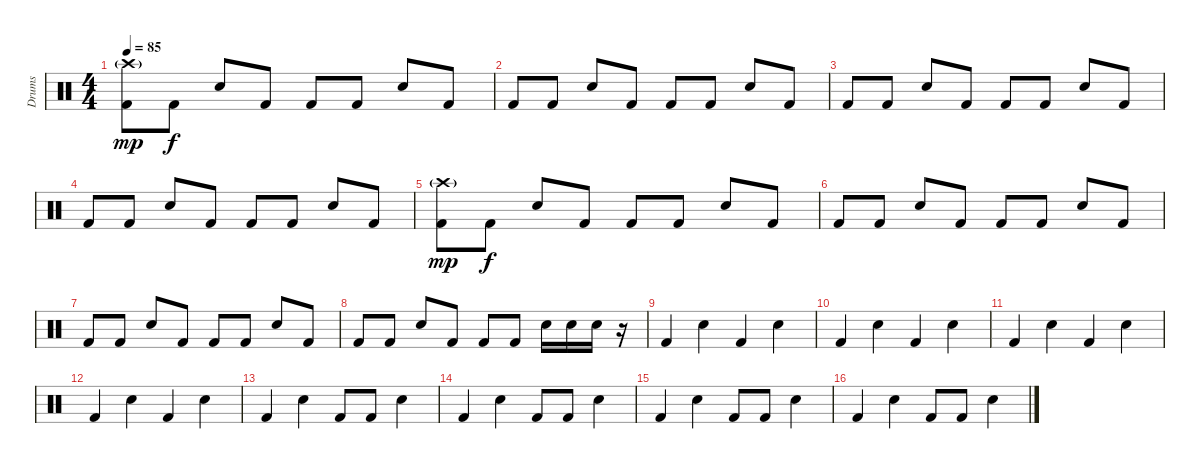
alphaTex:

\track ("Drums" "Drums") {instrument percussion}
\staff {score}
\articulation defaults
\ts (4 4)
\tempo 85
\clef neutral
\ks c
("Kick (hit) 2" "Crash high (hit)"{g}).8{dy mp} "Kick (hit) 2".8{dy f} "Electric Snare (hit)".8 "Kick (hit) 2".8 "Kick (hit) 2".8 "Kick (hit) 2".8 "Electric Snare (hit)".8 "Kick (hit) 2".8 |
"Kick (hit) 2".8 "Kick (hit) 2".8 "Electric Snare (hit)".8 "Kick (hit) 2".8 "Kick (hit) 2".8 "Kick (hit) 2".8 "Electric Snare (hit)".8 "Kick (hit) 2".8 |
"Kick (hit) 2".8 "Kick (hit) 2".8 "Electric Snare (hit)".8 "Kick (hit) 2".8 "Kick (hit) 2".8 "Kick (hit) 2".8 "Electric Snare (hit)".8 "Kick (hit) 2".8 |
"Kick (hit) 2".8 "Kick (hit) 2".8 "Electric Snare (hit)".8 "Kick (hit) 2".8 "Kick (hit) 2".8 "Kick (hit) 2".8 "Electric Snare (hit)".8 "Kick (hit) 2".8 |
("Kick (hit) 2" "Crash high (hit)"{g}).8{dy mp} "Kick (hit) 2".8{dy f} "Electric Snare (hit)".8 "Kick (hit) 2".8 "Kick (hit) 2".8 "Kick (hit) 2".8 "Electric Snare (hit)".8 "Kick (hit) 2".8 |
"Kick (hit) 2".8 "Kick (hit) 2".8 "Electric Snare (hit)".8 "Kick (hit) 2".8 "Kick (hit) 2".8 "Kick (hit) 2".8 "Electric Snare (hit)".8 "Kick (hit) 2".8 |
"Kick (hit) 2".8 "Kick (hit) 2".8 "Electric Snare (hit)".8 "Kick (hit) 2".8 "Kick (hit) 2".8 "Kick (hit) 2".8 "Electric Snare (hit)".8 "Kick (hit) 2".8 |
"Kick (hit) 2".8 "Kick (hit) 2".8 "Electric Snare (hit)".8 "Kick (hit) 2".8 "Kick (hit) 2".8 "Kick (hit) 2".8 "Electric Snare (hit)".16 "Electric Snare (hit)".16 "Electric Snare (hit)".16 r.16 |
"Kick (hit) 2".4 "Electric Snare (hit)".4 "Kick (hit) 2".4 "Electric Snare (hit)".4 |
"Kick (hit) 2".4 "Electric Snare (hit)".4 "Kick (hit) 2".4 "Electric Snare (hit)".4 |
"Kick (hit) 2".4 "Electric Snare (hit)".4 "Kick (hit) 2".4 "Electric Snare (hit)".4 |
"Kick (hit) 2".4 "Electric Snare (hit)".4 "Kick (hit) 2".4 "Electric Snare (hit)".4 |
"Kick (hit) 2".4 "Electric Snare (hit)".4 "Kick (hit) 2".8 "Kick (hit) 2".8 "Electric Snare (hit)".4 |
"Kick (hit) 2".4 "Electric Snare (hit)".4 "Kick (hit) 2".8 "Kick (hit) 2".8 "Electric Snare (hit)".4 |
"Kick (hit) 2".4 "Electric Snare (hit)".4 "Kick (hit) 2".8 "Kick (hit) 2".8 "Electric Snare (hit)".4 |
"Kick (hit) 2".4 "Electric Snare (hit)".4 "Kick (hit) 2".8 "Kick (hit) 2".8 "Electric Snare (hit)".4
